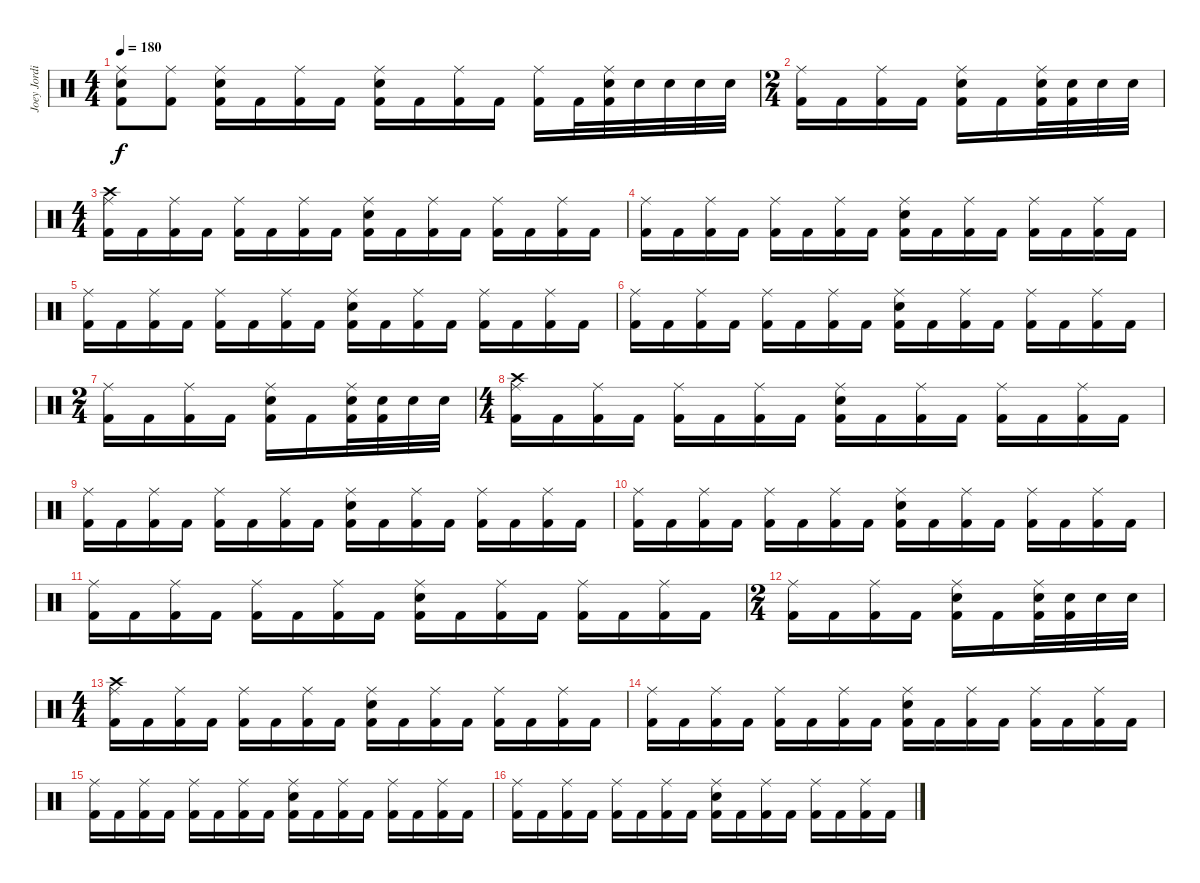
\track ("Joey Jordison" "Joey Jordi") {instrument percussion}
\staff {score}
\articulation defaults
\ts (4 4)
\tempo 180
\clef neutral
\ks c
("Ride (middle)" "Kick (hit) 2" "Electric Snare (hit)").8{dy f} ("Ride (middle)" "Kick (hit) 2").8 ("Ride (middle)" "Electric Snare (hit)" "Kick (hit) 2").16 "Kick (hit) 2".16 ("Ride (middle)" "Kick (hit) 2").16 "Kick (hit) 2".16 ("Ride (middle)" "Kick (hit) 2" "Electric Snare (hit)").16 "Kick (hit) 2".16 ("Ride (middle)" "Kick (hit) 2").16 "Kick (hit) 2".16 ("Ride (middle)" "Kick (hit) 2").16 "Kick (hit) 2".32 ("Ride (middle)" "Kick (hit) 2" "Electric Snare (hit)").32 "Electric Snare (hit)".32 "Electric Snare (hit)".32 "Electric Snare (hit)".32 "Electric Snare (hit)".32 |
\ts (2 4)
("Ride (middle)" "Kick (hit) 2").16 "Kick (hit) 2".16 ("Ride (middle)" "Kick (hit) 2").16 "Kick (hit) 2".16 ("Ride (middle)" "Electric Snare (hit)" "Kick (hit) 2").16 "Kick (hit) 2".16 ("Ride (middle)" "Electric Snare (hit)" "Kick (hit) 2").32 ("Electric Snare (hit)" "Kick (hit) 2").32 "Electric Snare (hit)".32 "Electric Snare (hit)".32 |
\ts (4 4)
("Crash high (hit)" "Ride (middle)" "Kick (hit) 2").16 "Kick (hit) 2".16 ("Ride (middle)" "Kick (hit) 2").16 "Kick (hit) 2".16 ("Ride (middle)" "Kick (hit) 2").16 "Kick (hit) 2".16 ("Ride (middle)" "Kick (hit) 2").16 "Kick (hit) 2".16 ("Ride (middle)" "Electric Snare (hit)" "Kick (hit) 2").16 "Kick (hit) 2".16 ("Ride (middle)" "Kick (hit) 2").16 "Kick (hit) 2".16 ("Ride (middle)" "Kick (hit) 2").16 "Kick (hit) 2".16 ("Ride (middle)" "Kick (hit) 2").16 "Kick (hit) 2".16 |
("Ride (middle)" "Kick (hit) 2").16 "Kick (hit) 2".16 ("Ride (middle)" "Kick (hit) 2").16 "Kick (hit) 2".16 ("Ride (middle)" "Kick (hit) 2").16 "Kick (hit) 2".16 ("Ride (middle)" "Kick (hit) 2").16 "Kick (hit) 2".16 ("Ride (middle)" "Electric Snare (hit)" "Kick (hit) 2").16 "Kick (hit) 2".16 ("Ride (middle)" "Kick (hit) 2").16 "Kick (hit) 2".16 ("Ride (middle)" "Kick (hit) 2").16 "Kick (hit) 2".16 ("Ride (middle)" "Kick (hit) 2").16 "Kick (hit) 2".16 |
("Ride (middle)" "Kick (hit) 2").16 "Kick (hit) 2".16 ("Ride (middle)" "Kick (hit) 2").16 "Kick (hit) 2".16 ("Ride (middle)" "Kick (hit) 2").16 "Kick (hit) 2".16 ("Ride (middle)" "Kick (hit) 2").16 "Kick (hit) 2".16 ("Ride (middle)" "Electric Snare (hit)" "Kick (hit) 2").16 "Kick (hit) 2".16 ("Ride (middle)" "Kick (hit) 2").16 "Kick (hit) 2".16 ("Ride (middle)" "Kick (hit) 2").16 "Kick (hit) 2".16 ("Ride (middle)" "Kick (hit) 2").16 "Kick (hit) 2".16 |
("Ride (middle)" "Kick (hit) 2").16 "Kick (hit) 2".16 ("Ride (middle)" "Kick (hit) 2").16 "Kick (hit) 2".16 ("Ride (middle)" "Kick (hit) 2").16 "Kick (hit) 2".16 ("Ride (middle)" "Kick (hit) 2").16 "Kick (hit) 2".16 ("Ride (middle)" "Electric Snare (hit)" "Kick (hit) 2").16 "Kick (hit) 2".16 ("Ride (middle)" "Kick (hit) 2").16 "Kick (hit) 2".16 ("Ride (middle)" "Kick (hit) 2").16 "Kick (hit) 2".16 ("Ride (middle)" "Kick (hit) 2").16 "Kick (hit) 2".16 |
\ts (2 4)
("Ride (middle)" "Kick (hit) 2").16 "Kick (hit) 2".16 ("Ride (middle)" "Kick (hit) 2").16 "Kick (hit) 2".16 ("Ride (middle)" "Electric Snare (hit)" "Kick (hit) 2").16 "Kick (hit) 2".16 ("Ride (middle)" "Electric Snare (hit)" "Kick (hit) 2").32 ("Electric Snare (hit)" "Kick (hit) 2").32 "Electric Snare (hit)".32 "Electric Snare (hit)".32 |
\ts (4 4)
("Crash high (hit)" "Ride (middle)" "Kick (hit) 2").16 "Kick (hit) 2".16 ("Ride (middle)" "Kick (hit) 2").16 "Kick (hit) 2".16 ("Ride (middle)" "Kick (hit) 2").16 "Kick (hit) 2".16 ("Ride (middle)" "Kick (hit) 2").16 "Kick (hit) 2".16 ("Ride (middle)" "Electric Snare (hit)" "Kick (hit) 2").16 "Kick (hit) 2".16 ("Ride (middle)" "Kick (hit) 2").16 "Kick (hit) 2".16 ("Ride (middle)" "Kick (hit) 2").16 "Kick (hit) 2".16 ("Ride (middle)" "Kick (hit) 2").16 "Kick (hit) 2".16 |
("Ride (middle)" "Kick (hit) 2").16 "Kick (hit) 2".16 ("Ride (middle)" "Kick (hit) 2").16 "Kick (hit) 2".16 ("Ride (middle)" "Kick (hit) 2").16 "Kick (hit) 2".16 ("Ride (middle)" "Kick (hit) 2").16 "Kick (hit) 2".16 ("Ride (middle)" "Electric Snare (hit)" "Kick (hit) 2").16 "Kick (hit) 2".16 ("Ride (middle)" "Kick (hit) 2").16 "Kick (hit) 2".16 ("Ride (middle)" "Kick (hit) 2").16 "Kick (hit) 2".16 ("Ride (middle)" "Kick (hit) 2").16 "Kick (hit) 2".16 |
("Ride (middle)" "Kick (hit) 2").16 "Kick (hit) 2".16 ("Ride (middle)" "Kick (hit) 2").16 "Kick (hit) 2".16 ("Ride (middle)" "Kick (hit) 2").16 "Kick (hit) 2".16 ("Ride (middle)" "Kick (hit) 2").16 "Kick (hit) 2".16 ("Ride (middle)" "Electric Snare (hit)" "Kick (hit) 2").16 "Kick (hit) 2".16 ("Ride (middle)" "Kick (hit) 2").16 "Kick (hit) 2".16 ("Ride (middle)" "Kick (hit) 2").16 "Kick (hit) 2".16 ("Ride (middle)" "Kick (hit) 2").16 "Kick (hit) 2".16 |
("Ride (middle)" "Kick (hit) 2").16 "Kick (hit) 2".16 ("Ride (middle)" "Kick (hit) 2").16 "Kick (hit) 2".16 ("Ride (middle)" "Kick (hit) 2").16 "Kick (hit) 2".16 ("Ride (middle)" "Kick (hit) 2").16 "Kick (hit) 2".16 ("Ride (middle)" "Electric Snare (hit)" "Kick (hit) 2").16 "Kick (hit) 2".16 ("Ride (middle)" "Kick (hit) 2").16 "Kick (hit) 2".16 ("Ride (middle)" "Kick (hit) 2").16 "Kick (hit) 2".16 ("Ride (middle)" "Kick (hit) 2").16 "Kick (hit) 2".16 |
\ts (2 4)
("Ride (middle)" "Kick (hit) 2").16 "Kick (hit) 2".16 ("Ride (middle)" "Kick (hit) 2").16 "Kick (hit) 2".16 ("Ride (middle)" "Electric Snare (hit)" "Kick (hit) 2").16 "Kick (hit) 2".16 ("Ride (middle)" "Electric Snare (hit)" "Kick (hit) 2").32 ("Electric Snare (hit)" "Kick (hit) 2").32 "Electric Snare (hit)".32 "Electric Snare (hit)".32 |
\ts (4 4)
("Crash high (hit)" "Ride (middle)" "Kick (hit) 2").16 "Kick (hit) 2".16 ("Ride (middle)" "Kick (hit) 2").16 "Kick (hit) 2".16 ("Ride (middle)" "Kick (hit) 2").16 "Kick (hit) 2".16 ("Ride (middle)" "Kick (hit) 2").16 "Kick (hit) 2".16 ("Ride (middle)" "Electric Snare (hit)" "Kick (hit) 2").16 "Kick (hit) 2".16 ("Ride (middle)" "Kick (hit) 2").16 "Kick (hit) 2".16 ("Ride (middle)" "Kick (hit) 2").16 "Kick (hit) 2".16 ("Ride (middle)" "Kick (hit) 2").16 "Kick (hit) 2".16 |
("Ride (middle)" "Kick (hit) 2").16 "Kick (hit) 2".16 ("Ride (middle)" "Kick (hit) 2").16 "Kick (hit) 2".16 ("Ride (middle)" "Kick (hit) 2").16 "Kick (hit) 2".16 ("Ride (middle)" "Kick (hit) 2").16 "Kick (hit) 2".16 ("Ride (middle)" "Electric Snare (hit)" "Kick (hit) 2").16 "Kick (hit) 2".16 ("Ride (middle)" "Kick (hit) 2").16 "Kick (hit) 2".16 ("Ride (middle)" "Kick (hit) 2").16 "Kick (hit) 2".16 ("Ride (middle)" "Kick (hit) 2").16 "Kick (hit) 2".16 |
("Ride (middle)" "Kick (hit) 2").16 "Kick (hit) 2".16 ("Ride (middle)" "Kick (hit) 2").16 "Kick (hit) 2".16 ("Ride (middle)" "Kick (hit) 2").16 "Kick (hit) 2".16 ("Ride (middle)" "Kick (hit) 2").16 "Kick (hit) 2".16 ("Ride (middle)" "Electric Snare (hit)" "Kick (hit) 2").16 "Kick (hit) 2".16 ("Ride (middle)" "Kick (hit) 2").16 "Kick (hit) 2".16 ("Ride (middle)" "Kick (hit) 2").16 "Kick (hit) 2".16 ("Ride (middle)" "Kick (hit) 2").16 "Kick (hit) 2".16 |
("Ride (middle)" "Kick (hit) 2").16 "Kick (hit) 2".16 ("Ride (middle)" "Kick (hit) 2").16 "Kick (hit) 2".16 ("Ride (middle)" "Kick (hit) 2").16 "Kick (hit) 2".16 ("Ride (middle)" "Kick (hit) 2").16 "Kick (hit) 2".16 ("Ride (middle)" "Electric Snare (hit)" "Kick (hit) 2").16 "Kick (hit) 2".16 ("Ride (middle)" "Kick (hit) 2").16 "Kick (hit) 2".16 ("Ride (middle)" "Kick (hit) 2").16 "Kick (hit) 2".16 ("Ride (middle)" "Kick (hit) 2").16 "Kick (hit) 2".16
